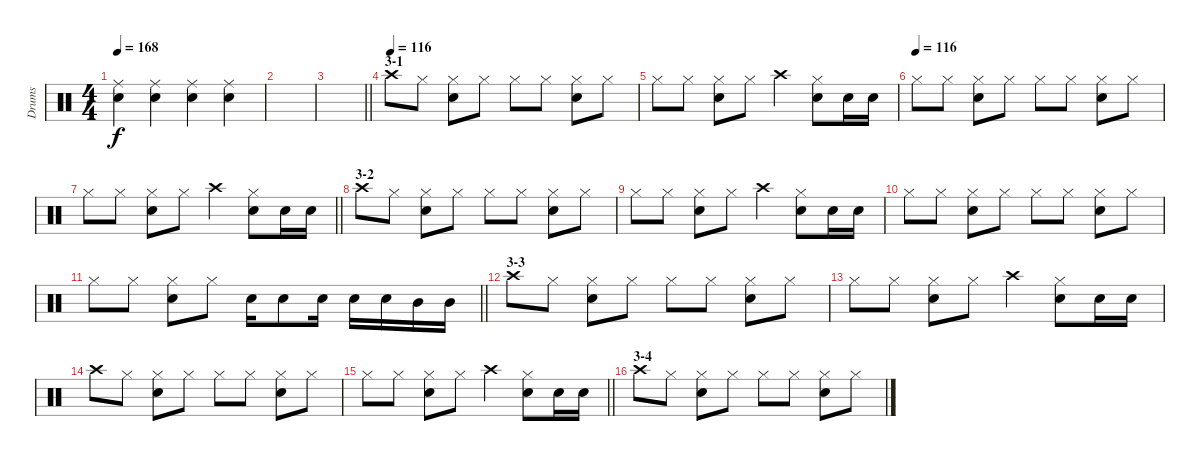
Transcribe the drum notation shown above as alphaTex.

\track ("Drums" "Drums") {instrument percussion}
\staff {score}
\articulation defaults
\ts (4 4)
\tempo 168
\clef neutral
\ks c
("Ride (middle)" "Snare (hit) 2").4{dy f} ("Ride (middle)" "Snare (hit) 2").4 ("Ride (middle)" "Snare (hit) 2").4 ("Ride (middle)" "Snare (hit) 2").4 |
|
\barLineRight lightlight
|
\section ("" "3-1")
\tempo (116)
"Crash high (hit)".8 "Hi-Hat (closed)".8 ("Hi-Hat (closed)" "Snare (hit) 2").8 "Hi-Hat (closed)".8 "Hi-Hat (closed)".8 "Hi-Hat (closed)".8 ("Hi-Hat (closed)" "Snare (hit) 2").8 "Hi-Hat (closed)".8 |
"Hi-Hat (closed)".8 "Hi-Hat (closed)".8 ("Hi-Hat (closed)" "Snare (hit) 2").8 "Hi-Hat (closed)".8 "Crash high (hit)".4 ("Hi-Hat (closed)" "Snare (hit) 2").8 "Snare (hit) 2".16 "Snare (hit) 2".16 |
\tempo (116)
"Hi-Hat (closed)".8 "Hi-Hat (closed)".8 ("Hi-Hat (closed)" "Snare (hit) 2").8 "Hi-Hat (closed)".8 "Hi-Hat (closed)".8 "Hi-Hat (closed)".8 ("Hi-Hat (closed)" "Snare (hit) 2").8 "Hi-Hat (closed)".8 |
\barLineRight lightlight "Hi-Hat (closed)".8 "Hi-Hat (closed)".8
("Hi-Hat (closed)" "Snare (hit) 2").8 "Hi-Hat (closed)".8 "Crash high (hit)".4 ("Hi-Hat (closed)" "Snare (hit) 2").8 "Snare (hit) 2".16 "Snare (hit) 2".16 |
\section ("" "3-2")
"Crash high (hit)".8 "Hi-Hat (closed)".8 ("Hi-Hat (closed)" "Snare (hit) 2").8 "Hi-Hat (closed)".8 "Hi-Hat (closed)".8 "Hi-Hat (closed)".8 ("Hi-Hat (closed)" "Snare (hit) 2").8 "Hi-Hat (closed)".8 |
"Hi-Hat (closed)".8 "Hi-Hat (closed)".8 ("Hi-Hat (closed)" "Snare (hit) 2").8 "Hi-Hat (closed)".8 "Crash high (hit)".4 ("Hi-Hat (closed)" "Snare (hit) 2").8 "Snare (hit) 2".16 "Snare (hit) 2".16 |
"Hi-Hat (closed)".8 "Hi-Hat (closed)".8 ("Hi-Hat (closed)" "Snare (hit) 2").8 "Hi-Hat (closed)".8 "Hi-Hat (closed)".8 "Hi-Hat (closed)".8 ("Hi-Hat (closed)" "Snare (hit) 2").8 "Hi-Hat (closed)".8 |
\barLineRight lightlight "Hi-Hat (closed)".8 "Hi-Hat (closed)".8
("Hi-Hat (closed)" "Snare (hit) 2").8 "Hi-Hat (closed)".8 "Snare (hit) 2".16 "Snare (hit) 2".8 "Snare (hit) 2".16 "Snare (hit) 2".16 "Snare (hit) 2".16 "Mid Tom (hit)".16 "Mid Tom (hit)".16 |
\section ("" "3-3")
"Crash high (hit)".8 "Hi-Hat (closed)".8 ("Hi-Hat (closed)" "Snare (hit) 2").8 "Hi-Hat (closed)".8 "Hi-Hat (closed)".8 "Hi-Hat (closed)".8 ("Hi-Hat (closed)" "Snare (hit) 2").8 "Hi-Hat (closed)".8 |
"Hi-Hat (closed)".8 "Hi-Hat (closed)".8 ("Hi-Hat (closed)" "Snare (hit) 2").8 "Hi-Hat (closed)".8 "Crash high (hit)".4 ("Hi-Hat (closed)" "Snare (hit) 2").8 "Snare (hit) 2".16 "Snare (hit) 2".16 |
"Crash high (hit)".8 "Hi-Hat (closed)".8 ("Hi-Hat (closed)" "Snare (hit) 2").8 "Hi-Hat (closed)".8 "Hi-Hat (closed)".8 "Hi-Hat (closed)".8 ("Hi-Hat (closed)" "Snare (hit) 2").8 "Hi-Hat (closed)".8 |
\barLineRight lightlight "Hi-Hat (closed)".8 "Hi-Hat (closed)".8
("Hi-Hat (closed)" "Snare (hit) 2").8 "Hi-Hat (closed)".8 "Crash high (hit)".4 ("Hi-Hat (closed)" "Snare (hit) 2").8 "Snare (hit) 2".16 "Snare (hit) 2".16 |
\section ("" "3-4")
"Crash high (hit)".8 "Hi-Hat (closed)".8 ("Hi-Hat (closed)" "Snare (hit) 2").8 "Hi-Hat (closed)".8 "Hi-Hat (closed)".8 "Hi-Hat (closed)".8 ("Hi-Hat (closed)" "Snare (hit) 2").8 "Hi-Hat (closed)".8
